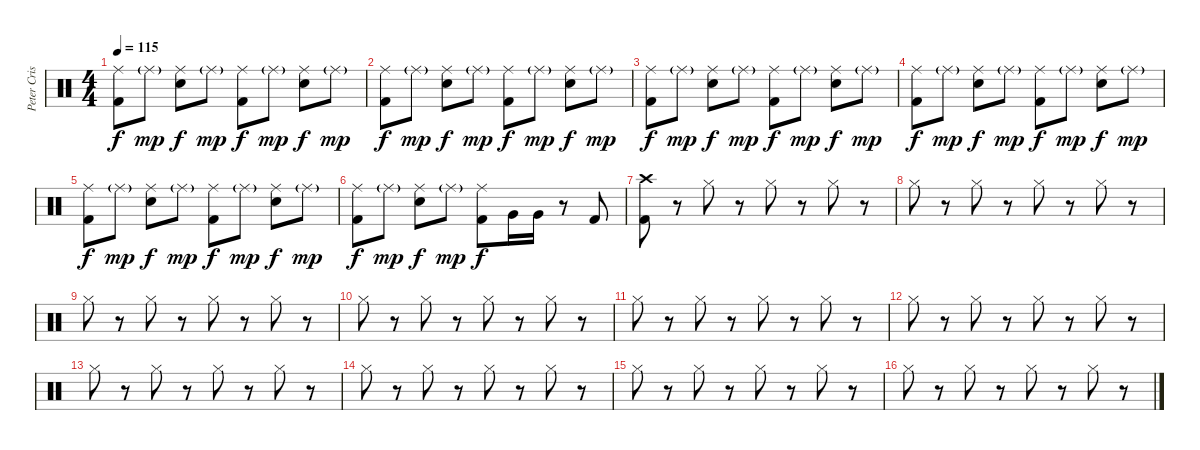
\track ("Peter Criss" "Peter Cris") {instrument percussion}
\staff {score}
\articulation defaults
\ts (4 4)
\tempo 115
\clef neutral
\ks c
("Ride (middle)" "Kick (hit) 2").8{dy f} "Ride (middle)"{g}.8{dy mp} ("Ride (middle)" "Electric Snare (hit)").8{dy f} "Ride (middle)"{g}.8{dy mp} ("Ride (middle)" "Kick (hit) 2").8{dy f} "Ride (middle)"{g}.8{dy mp} ("Ride (middle)" "Electric Snare (hit)").8{dy f} "Ride (middle)"{g}.8{dy mp} |
("Ride (middle)" "Kick (hit) 2").8{dy f} "Ride (middle)"{g}.8{dy mp} ("Ride (middle)" "Electric Snare (hit)").8{dy f} "Ride (middle)"{g}.8{dy mp} ("Ride (middle)" "Kick (hit) 2").8{dy f} "Ride (middle)"{g}.8{dy mp} ("Ride (middle)" "Electric Snare (hit)").8{dy f} "Ride (middle)"{g}.8{dy mp} |
("Ride (middle)" "Kick (hit) 2").8{dy f} "Ride (middle)"{g}.8{dy mp} ("Ride (middle)" "Electric Snare (hit)").8{dy f} "Ride (middle)"{g}.8{dy mp} ("Ride (middle)" "Kick (hit) 2").8{dy f} "Ride (middle)"{g}.8{dy mp} ("Ride (middle)" "Electric Snare (hit)").8{dy f} "Ride (middle)"{g}.8{dy mp} |
("Ride (middle)" "Kick (hit) 2").8{dy f} "Ride (middle)"{g}.8{dy mp} ("Ride (middle)" "Electric Snare (hit)").8{dy f} "Ride (middle)"{g}.8{dy mp} ("Ride (middle)" "Kick (hit) 2").8{dy f} "Ride (middle)"{g}.8{dy mp} ("Ride (middle)" "Electric Snare (hit)").8{dy f} "Ride (middle)"{g}.8{dy mp} |
("Ride (middle)" "Kick (hit) 2").8{dy f} "Ride (middle)"{g}.8{dy mp} ("Ride (middle)" "Electric Snare (hit)").8{dy f} "Ride (middle)"{g}.8{dy mp} ("Ride (middle)" "Kick (hit) 2").8{dy f} "Ride (middle)"{g}.8{dy mp} ("Ride (middle)" "Electric Snare (hit)").8{dy f} "Ride (middle)"{g}.8{dy mp} |
("Ride (middle)" "Kick (hit) 2").8{dy f} "Ride (middle)"{g}.8{dy mp} ("Ride (middle)" "Electric Snare (hit)").8{dy f} "Ride (middle)"{g}.8{dy mp} ("Ride (middle)" "Kick (hit) 2").8{dy f} "Very Low Tom (hit)".16 "Very Low Tom (hit)".16 r.8 "Kick (hit) 2".8 |
("Crash high (hit)" "Kick (hit) 2").8 r.8 "Hi-Hat (closed)".8 r.8 "Hi-Hat (closed)".8 r.8 "Hi-Hat (closed)".8 r.8 |
"Hi-Hat (closed)".8 r.8 "Hi-Hat (closed)".8 r.8 "Hi-Hat (closed)".8 r.8 "Hi-Hat (closed)".8 r.8 |
"Hi-Hat (closed)".8 r.8 "Hi-Hat (closed)".8 r.8 "Hi-Hat (closed)".8 r.8 "Hi-Hat (closed)".8 r.8 |
"Hi-Hat (closed)".8 r.8 "Hi-Hat (closed)".8 r.8 "Hi-Hat (closed)".8 r.8 "Hi-Hat (closed)".8 r.8 |
"Hi-Hat (closed)".8 r.8 "Hi-Hat (closed)".8 r.8 "Hi-Hat (closed)".8 r.8 "Hi-Hat (closed)".8 r.8 |
"Hi-Hat (closed)".8 r.8 "Hi-Hat (closed)".8 r.8 "Hi-Hat (closed)".8 r.8 "Hi-Hat (closed)".8 r.8 |
"Hi-Hat (closed)".8 r.8 "Hi-Hat (closed)".8 r.8 "Hi-Hat (closed)".8 r.8 "Hi-Hat (closed)".8 r.8 |
"Hi-Hat (closed)".8 r.8 "Hi-Hat (closed)".8 r.8 "Hi-Hat (closed)".8 r.8 "Hi-Hat (closed)".8 r.8 |
"Hi-Hat (closed)".8 r.8 "Hi-Hat (closed)".8 r.8 "Hi-Hat (closed)".8 r.8 "Hi-Hat (closed)".8 r.8 |
"Hi-Hat (closed)".8 r.8 "Hi-Hat (closed)".8 r.8 "Hi-Hat (closed)".8 r.8 "Hi-Hat (closed)".8 r.8
